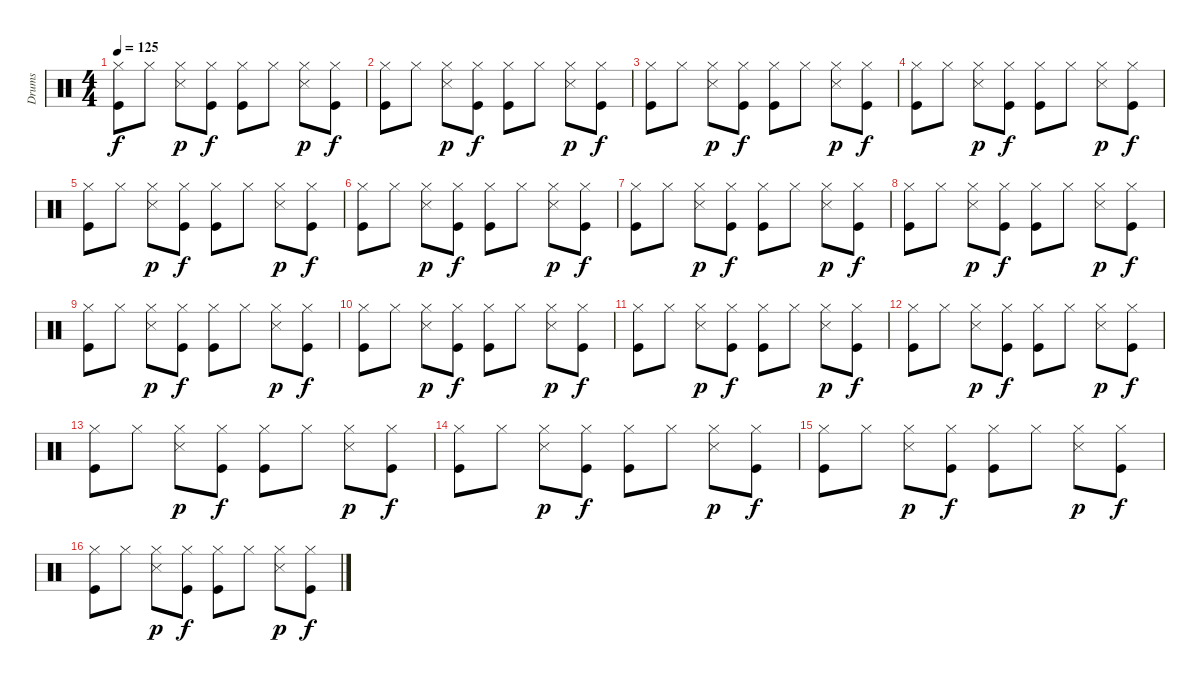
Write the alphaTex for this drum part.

\track ("Drums" "Drums") {instrument percussion}
\staff {score}
\articulation defaults
\ts (4 4)
\tempo 125
\clef neutral
\ks c
("Kick (hit)" "Hi-Hat (closed)").8{dy f} "Hi-Hat (closed)".8 ("Hi-Hat (closed)" "Snare (side stick) 3").8{dy p} ("Hi-Hat (closed)" "Kick (hit)").8{dy f} ("Hi-Hat (closed)" "Kick (hit)").8 "Hi-Hat (closed)".8 ("Hi-Hat (closed)" "Snare (side stick) 3").8{dy p} ("Hi-Hat (closed)" "Kick (hit)").8{dy f} |
("Kick (hit)" "Hi-Hat (closed)").8 "Hi-Hat (closed)".8 ("Hi-Hat (closed)" "Snare (side stick) 3").8{dy p} ("Hi-Hat (closed)" "Kick (hit)").8{dy f} ("Hi-Hat (closed)" "Kick (hit)").8 "Hi-Hat (closed)".8 ("Hi-Hat (closed)" "Snare (side stick) 3").8{dy p} ("Hi-Hat (closed)" "Kick (hit)").8{dy f} |
("Kick (hit)" "Hi-Hat (closed)").8 "Hi-Hat (closed)".8 ("Hi-Hat (closed)" "Snare (side stick) 3").8{dy p} ("Hi-Hat (closed)" "Kick (hit)").8{dy f} ("Hi-Hat (closed)" "Kick (hit)").8 "Hi-Hat (closed)".8 ("Hi-Hat (closed)" "Snare (side stick) 3").8{dy p} ("Hi-Hat (closed)" "Kick (hit)").8{dy f} |
("Kick (hit)" "Hi-Hat (closed)").8 "Hi-Hat (closed)".8 ("Hi-Hat (closed)" "Snare (side stick) 3").8{dy p} ("Hi-Hat (closed)" "Kick (hit)").8{dy f} ("Hi-Hat (closed)" "Kick (hit)").8 "Hi-Hat (closed)".8 ("Hi-Hat (closed)" "Snare (side stick) 3").8{dy p} ("Hi-Hat (closed)" "Kick (hit)").8{dy f} |
("Kick (hit)" "Hi-Hat (closed)").8 "Hi-Hat (closed)".8 ("Hi-Hat (closed)" "Snare (side stick) 3").8{dy p} ("Hi-Hat (closed)" "Kick (hit)").8{dy f} ("Hi-Hat (closed)" "Kick (hit)").8 "Hi-Hat (closed)".8 ("Hi-Hat (closed)" "Snare (side stick) 3").8{dy p} ("Hi-Hat (closed)" "Kick (hit)").8{dy f} |
("Kick (hit)" "Hi-Hat (closed)").8 "Hi-Hat (closed)".8 ("Hi-Hat (closed)" "Snare (side stick) 3").8{dy p} ("Hi-Hat (closed)" "Kick (hit)").8{dy f} ("Hi-Hat (closed)" "Kick (hit)").8 "Hi-Hat (closed)".8 ("Hi-Hat (closed)" "Snare (side stick) 3").8{dy p} ("Hi-Hat (closed)" "Kick (hit)").8{dy f} |
("Kick (hit)" "Hi-Hat (closed)").8 "Hi-Hat (closed)".8 ("Hi-Hat (closed)" "Snare (side stick) 3").8{dy p} ("Hi-Hat (closed)" "Kick (hit)").8{dy f} ("Hi-Hat (closed)" "Kick (hit)").8 "Hi-Hat (closed)".8 ("Hi-Hat (closed)" "Snare (side stick) 3").8{dy p} ("Hi-Hat (closed)" "Kick (hit)").8{dy f} |
("Kick (hit)" "Hi-Hat (closed)").8 "Hi-Hat (closed)".8 ("Hi-Hat (closed)" "Snare (side stick) 3").8{dy p} ("Hi-Hat (closed)" "Kick (hit)").8{dy f} ("Hi-Hat (closed)" "Kick (hit)").8 "Hi-Hat (closed)".8 ("Hi-Hat (closed)" "Snare (side stick) 3").8{dy p} ("Hi-Hat (closed)" "Kick (hit)").8{dy f} |
("Hi-Hat (closed)" "Kick (hit)").8 "Hi-Hat (closed)".8 ("Hi-Hat (closed)" "Snare (side stick) 3").8{dy p} ("Hi-Hat (closed)" "Kick (hit)").8{dy f} ("Hi-Hat (closed)" "Kick (hit)").8 "Hi-Hat (closed)".8 ("Hi-Hat (closed)" "Snare (side stick) 3").8{dy p} ("Hi-Hat (closed)" "Kick (hit)").8{dy f} |
("Hi-Hat (closed)" "Kick (hit)").8 "Hi-Hat (closed)".8 ("Hi-Hat (closed)" "Snare (side stick) 3").8{dy p} ("Hi-Hat (closed)" "Kick (hit)").8{dy f} ("Hi-Hat (closed)" "Kick (hit)").8 "Hi-Hat (closed)".8 ("Hi-Hat (closed)" "Snare (side stick) 3").8{dy p} ("Hi-Hat (closed)" "Kick (hit)").8{dy f} |
("Hi-Hat (closed)" "Kick (hit)").8 "Hi-Hat (closed)".8 ("Hi-Hat (closed)" "Snare (side stick) 3").8{dy p} ("Hi-Hat (closed)" "Kick (hit)").8{dy f} ("Hi-Hat (closed)" "Kick (hit)").8 "Hi-Hat (closed)".8 ("Hi-Hat (closed)" "Snare (side stick) 3").8{dy p} ("Hi-Hat (closed)" "Kick (hit)").8{dy f} |
("Hi-Hat (closed)" "Kick (hit)").8 "Hi-Hat (closed)".8 ("Hi-Hat (closed)" "Snare (side stick) 3").8{dy p} ("Hi-Hat (closed)" "Kick (hit)").8{dy f} ("Hi-Hat (closed)" "Kick (hit)").8 "Hi-Hat (closed)".8 ("Hi-Hat (closed)" "Snare (side stick) 3").8{dy p} ("Hi-Hat (closed)" "Kick (hit)").8{dy f} |
("Hi-Hat (closed)" "Kick (hit)").8 "Hi-Hat (closed)".8 ("Hi-Hat (closed)" "Snare (side stick) 3").8{dy p} ("Hi-Hat (closed)" "Kick (hit)").8{dy f} ("Hi-Hat (closed)" "Kick (hit)").8 "Hi-Hat (closed)".8 ("Hi-Hat (closed)" "Snare (side stick) 3").8{dy p} ("Hi-Hat (closed)" "Kick (hit)").8{dy f} |
("Hi-Hat (closed)" "Kick (hit)").8 "Hi-Hat (closed)".8 ("Hi-Hat (closed)" "Snare (side stick) 3").8{dy p} ("Hi-Hat (closed)" "Kick (hit)").8{dy f} ("Hi-Hat (closed)" "Kick (hit)").8 "Hi-Hat (closed)".8 ("Hi-Hat (closed)" "Snare (side stick) 3").8{dy p} ("Hi-Hat (closed)" "Kick (hit)").8{dy f} |
("Hi-Hat (closed)" "Kick (hit)").8 "Hi-Hat (closed)".8 ("Hi-Hat (closed)" "Snare (side stick) 3").8{dy p} ("Hi-Hat (closed)" "Kick (hit)").8{dy f} ("Hi-Hat (closed)" "Kick (hit)").8 "Hi-Hat (closed)".8 ("Hi-Hat (closed)" "Snare (side stick) 3").8{dy p} ("Hi-Hat (closed)" "Kick (hit)").8{dy f} |
("Hi-Hat (closed)" "Kick (hit)").8 "Hi-Hat (closed)".8 ("Hi-Hat (closed)" "Snare (side stick) 3").8{dy p} ("Hi-Hat (closed)" "Kick (hit)").8{dy f} ("Hi-Hat (closed)" "Kick (hit)").8 "Hi-Hat (closed)".8 ("Hi-Hat (closed)" "Snare (side stick) 3").8{dy p} ("Hi-Hat (closed)" "Kick (hit)").8{dy f}
